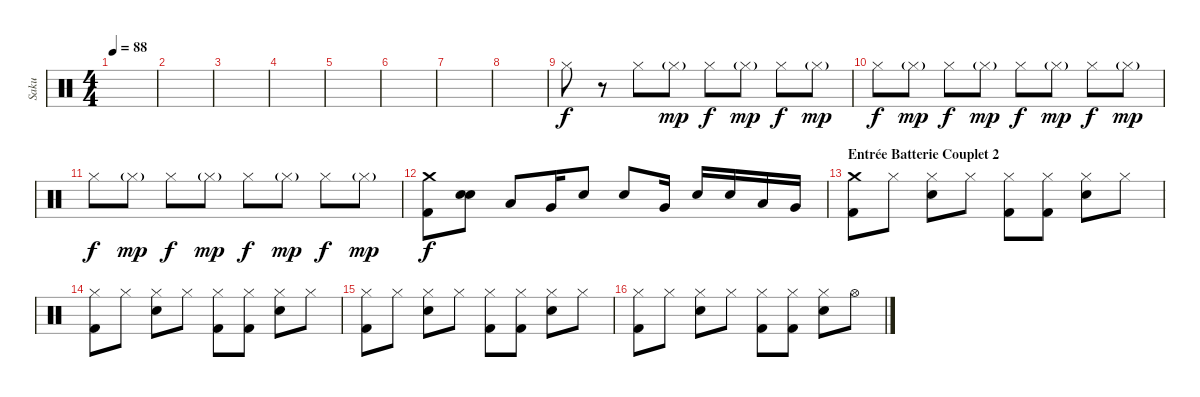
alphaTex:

\track ("Saku" "Saku") {instrument percussion}
\staff {score}
\articulation defaults
\ts (4 4)
\tempo 88
\clef neutral
\ks c
|
|
|
|
|
|
|
|
"Hi-Hat (closed)".8 r.8 "Hi-Hat (closed)".8 "Hi-Hat (closed)"{g}.8{dy mp} "Hi-Hat (closed)".8{dy f} "Hi-Hat (closed)"{g}.8{dy mp} "Hi-Hat (closed)".8{dy f} "Hi-Hat (closed)"{g}.8{dy mp} |
"Hi-Hat (closed)".8{dy f} "Hi-Hat (closed)"{g}.8{dy mp} "Hi-Hat (closed)".8{dy f} "Hi-Hat (closed)"{g}.8{dy mp} "Hi-Hat (closed)".8{dy f} "Hi-Hat (closed)"{g}.8{dy mp} "Hi-Hat (closed)".8{dy f} "Hi-Hat (closed)"{g}.8{dy mp} |
"Hi-Hat (closed)".8{dy f} "Hi-Hat (closed)"{g}.8{dy mp} "Hi-Hat (closed)".8{dy f} "Hi-Hat (closed)"{g}.8{dy mp} "Hi-Hat (closed)".8{dy f} "Hi-Hat (closed)"{g}.8{dy mp} "Hi-Hat (closed)".8{dy f} "Hi-Hat (closed)"{g}.8{dy mp} |
("Crash medium (hit)" "Kick (hit) 2").8{dy f} ("Electric Snare (hit)" "Electric Snare (hit)").8{bu 60} "Low Tom (hit)".8 "Very Low Tom (hit)".16 "Electric Snare (hit)".8 "Electric Snare (hit)".8 "Very Low Tom (hit)".16 "Electric Snare (hit)".16 "Electric Snare (hit)".16 "Low Tom (hit)".16 "Very Low Tom (hit)".16 |
\section ("" "Entrée Batterie Couplet 2")
("Crash medium (hit)" "Kick (hit) 2").8 "Hi-Hat (closed)".8 ("Hi-Hat (closed)" "Electric Snare (hit)").8 "Hi-Hat (closed)".8 ("Hi-Hat (closed)" "Kick (hit) 2").8 ("Hi-Hat (closed)" "Kick (hit) 2").8 ("Hi-Hat (closed)" "Electric Snare (hit)").8 "Hi-Hat (closed)".8 |
("Hi-Hat (closed)" "Kick (hit) 2").8 "Hi-Hat (closed)".8 ("Hi-Hat (closed)" "Electric Snare (hit)").8 "Hi-Hat (closed)".8 ("Hi-Hat (closed)" "Kick (hit) 2").8 ("Hi-Hat (closed)" "Kick (hit) 2").8 ("Hi-Hat (closed)" "Electric Snare (hit)").8 "Hi-Hat (closed)".8 |
("Hi-Hat (closed)" "Kick (hit) 2").8 "Hi-Hat (closed)".8 ("Hi-Hat (closed)" "Electric Snare (hit)").8 "Hi-Hat (closed)".8 ("Hi-Hat (closed)" "Kick (hit) 2").8 ("Hi-Hat (closed)" "Kick (hit) 2").8 ("Hi-Hat (closed)" "Electric Snare (hit)").8 "Hi-Hat (closed)".8 |
("Hi-Hat (closed)" "Kick (hit) 2").8 "Hi-Hat (closed)".8 ("Hi-Hat (closed)" "Electric Snare (hit)").8 "Hi-Hat (closed)".8 ("Hi-Hat (closed)" "Kick (hit) 2").8 ("Hi-Hat (closed)" "Kick (hit) 2").8 ("Hi-Hat (closed)" "Electric Snare (hit)").8 "Hi-Hat (open)".8
